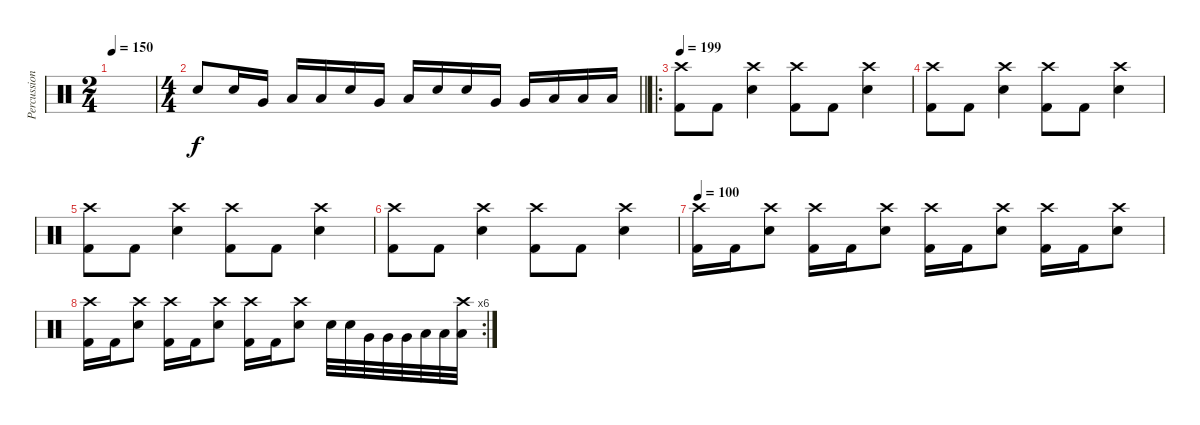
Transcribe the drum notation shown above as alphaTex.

\track ("Percussion" "Percussion") {instrument percussion}
\staff {score}
\articulation defaults
\ts (2 4)
\tempo 150
\clef neutral
\ks c
|
\ts (4 4)
\barLineRight lightlight "Electric Snare (hit)".8 "Electric Snare (hit)".16 "Very Low Tom (hit)".16 "Low Floor Tom (hit)".16 "Low Floor Tom (hit)".16 "Electric Snare (hit)".16 "Very Low Tom (hit)".16 "Low Floor Tom (hit)".16 "Electric Snare (hit)".16 "Electric Snare (hit)".16 "Very Low Tom (hit)".16 "Very Low Tom (hit)".16 "Low Floor Tom (hit)".16 "Low Floor Tom (hit)".16 "Low Floor Tom (hit)".16
|
\ro
\tempo 199
("Crash high (hit)" "Kick (hit) 2").8 "Kick (hit) 2".8 ("Crash high (hit)" "Electric Snare (hit)").4 ("Crash high (hit)" "Kick (hit) 2").8 "Kick (hit) 2".8 ("Crash high (hit)" "Electric Snare (hit)").4 |
("Crash high (hit)" "Kick (hit) 2").8 "Kick (hit) 2".8 ("Crash high (hit)" "Electric Snare (hit)").4 ("Crash high (hit)" "Kick (hit) 2").8 "Kick (hit) 2".8 ("Crash high (hit)" "Electric Snare (hit)").4 |
("Crash high (hit)" "Kick (hit) 2").8 "Kick (hit) 2".8 ("Crash high (hit)" "Electric Snare (hit)").4 ("Crash high (hit)" "Kick (hit) 2").8 "Kick (hit) 2".8 ("Crash high (hit)" "Electric Snare (hit)").4 |
("Crash high (hit)" "Kick (hit) 2").8 "Kick (hit) 2".8 ("Crash high (hit)" "Electric Snare (hit)").4 ("Crash high (hit)" "Kick (hit) 2").8 "Kick (hit) 2".8 ("Crash high (hit)" "Electric Snare (hit)").4 |
\tempo 100
("Crash high (hit)" "Kick (hit) 2").16 "Kick (hit) 2".16 ("Crash high (hit)" "Electric Snare (hit)").8 ("Crash high (hit)" "Kick (hit) 2").16 "Kick (hit) 2".16 ("Crash high (hit)" "Electric Snare (hit)").8 ("Crash high (hit)" "Kick (hit) 2").16 "Kick (hit) 2".16 ("Crash high (hit)" "Electric Snare (hit)").8 ("Crash high (hit)" "Kick (hit) 2").16 "Kick (hit) 2".16 ("Crash high (hit)" "Electric Snare (hit)").8 |
\rc 6
("Crash high (hit)" "Kick (hit) 2").16 "Kick (hit) 2".16 ("Crash high (hit)" "Electric Snare (hit)").8 ("Crash high (hit)" "Kick (hit) 2").16 "Kick (hit) 2".16 ("Crash high (hit)" "Electric Snare (hit)").8 ("Crash high (hit)" "Kick (hit) 2").16 "Kick (hit) 2".16 ("Crash high (hit)" "Electric Snare (hit)").8 "Electric Snare (hit)".32 "Electric Snare (hit)".32 "Very Low Tom (hit)".32 "Very Low Tom (hit)".32 "Very Low Tom (hit)".32 "Low Floor Tom (hit)".32 "Low Floor Tom (hit)".32 ("Crash high (hit)" "Low Floor Tom (hit)").32
